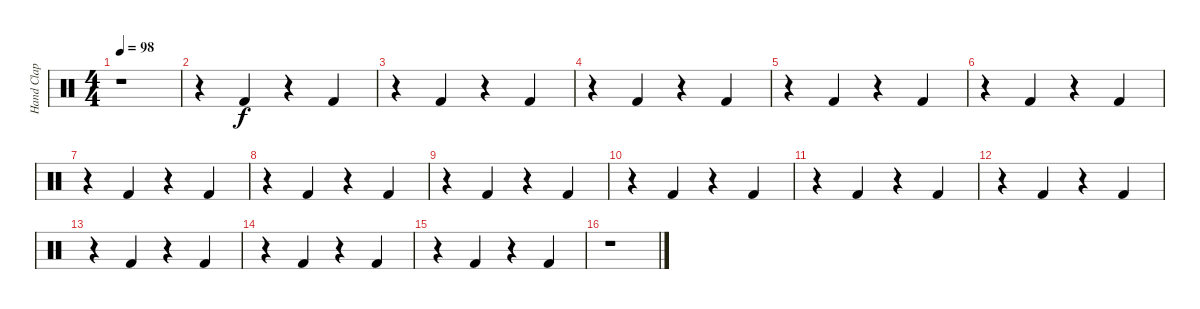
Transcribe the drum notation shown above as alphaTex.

\track ("Hand Clap" "Hand Clap") {instrument percussion}
\staff {score}
\articulation defaults
\ts (4 4)
\tempo 98
\clef neutral
\ks c
r.1{dy f} |
r.4 "Kick (hit) 2".4 r.4 "Kick (hit) 2".4 |
r.4 "Kick (hit) 2".4 r.4 "Kick (hit) 2".4 |
r.4 "Kick (hit) 2".4 r.4 "Kick (hit) 2".4 |
r.4 "Kick (hit) 2".4 r.4 "Kick (hit) 2".4 |
r.4 "Kick (hit) 2".4 r.4 "Kick (hit) 2".4 |
r.4 "Kick (hit) 2".4 r.4 "Kick (hit) 2".4 |
r.4 "Kick (hit) 2".4 r.4 "Kick (hit) 2".4 |
r.4 "Kick (hit) 2".4 r.4 "Kick (hit) 2".4 |
r.4 "Kick (hit) 2".4 r.4 "Kick (hit) 2".4 |
r.4 "Kick (hit) 2".4 r.4 "Kick (hit) 2".4 |
r.4 "Kick (hit) 2".4 r.4 "Kick (hit) 2".4 |
r.4 "Kick (hit) 2".4 r.4 "Kick (hit) 2".4 |
r.4 "Kick (hit) 2".4 r.4 "Kick (hit) 2".4 |
r.4 "Kick (hit) 2".4 r.4 "Kick (hit) 2".4 |
r.1
